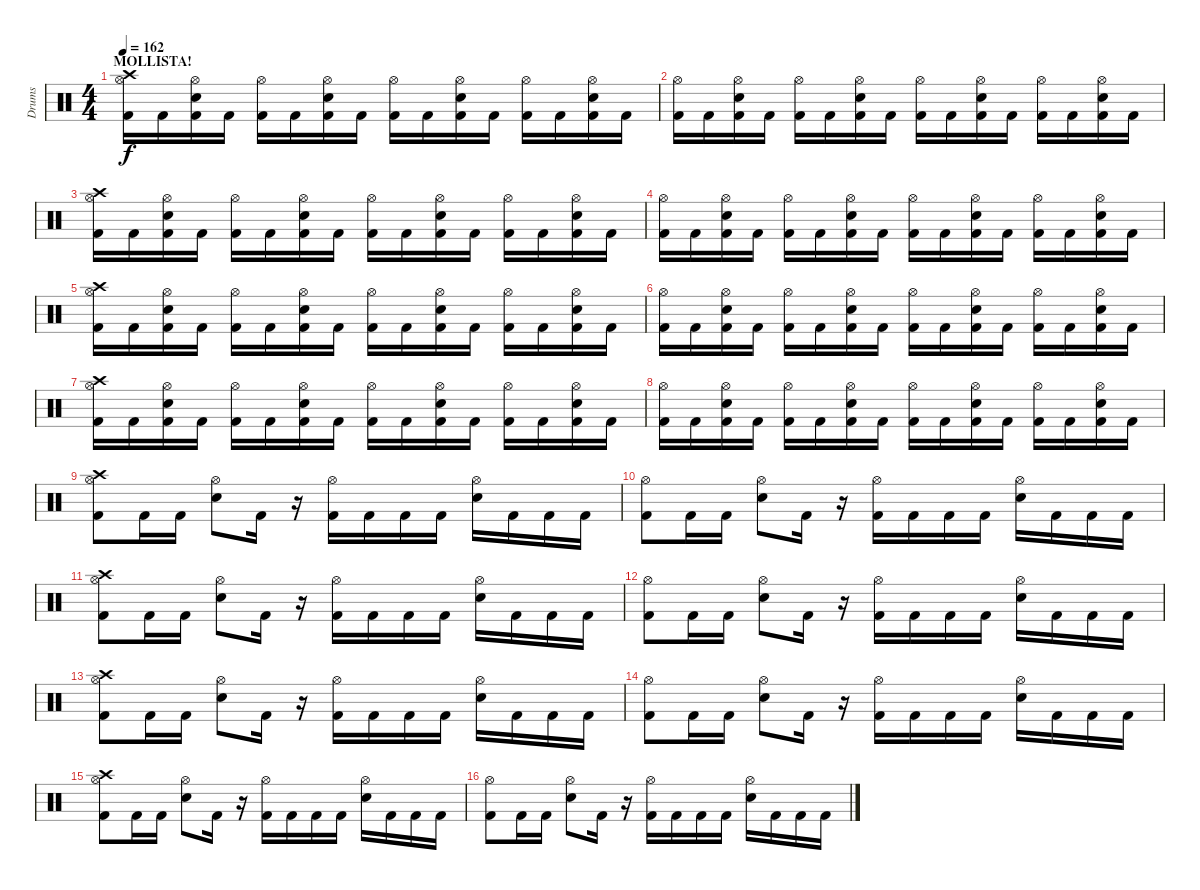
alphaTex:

\track ("Drums" "Drums") {instrument percussion}
\staff {score}
\articulation defaults
\ts (4 4)
\section ("" "MOLLISTA!")
\tempo 162
\clef neutral
\ks c
("Crash high (hit)" "Hi-Hat (open)" "Kick (hit) 2").16{dy f} "Kick (hit) 2".16 ("Electric Snare (hit)" "Hi-Hat (open)" "Kick (hit) 2").16 "Kick (hit) 2".16 ("Hi-Hat (open)" "Kick (hit) 2").16 "Kick (hit) 2".16 ("Electric Snare (hit)" "Hi-Hat (open)" "Kick (hit) 2").16 "Kick (hit) 2".16 ("Hi-Hat (open)" "Kick (hit) 2").16 "Kick (hit) 2".16 ("Electric Snare (hit)" "Hi-Hat (open)" "Kick (hit) 2").16 "Kick (hit) 2".16 ("Hi-Hat (open)" "Kick (hit) 2").16 "Kick (hit) 2".16 ("Electric Snare (hit)" "Hi-Hat (open)" "Kick (hit) 2").16 "Kick (hit) 2".16 |
("Hi-Hat (open)" "Kick (hit) 2").16 "Kick (hit) 2".16 ("Electric Snare (hit)" "Hi-Hat (open)" "Kick (hit) 2").16 "Kick (hit) 2".16 ("Hi-Hat (open)" "Kick (hit) 2").16 "Kick (hit) 2".16 ("Electric Snare (hit)" "Hi-Hat (open)" "Kick (hit) 2").16 "Kick (hit) 2".16 ("Hi-Hat (open)" "Kick (hit) 2").16 "Kick (hit) 2".16 ("Electric Snare (hit)" "Hi-Hat (open)" "Kick (hit) 2").16 "Kick (hit) 2".16 ("Hi-Hat (open)" "Kick (hit) 2").16 "Kick (hit) 2".16 ("Electric Snare (hit)" "Hi-Hat (open)" "Kick (hit) 2").16 "Kick (hit) 2".16 |
("Crash high (hit)" "Hi-Hat (open)" "Kick (hit) 2").16 "Kick (hit) 2".16 ("Electric Snare (hit)" "Hi-Hat (open)" "Kick (hit) 2").16 "Kick (hit) 2".16 ("Hi-Hat (open)" "Kick (hit) 2").16 "Kick (hit) 2".16 ("Electric Snare (hit)" "Hi-Hat (open)" "Kick (hit) 2").16 "Kick (hit) 2".16 ("Hi-Hat (open)" "Kick (hit) 2").16 "Kick (hit) 2".16 ("Electric Snare (hit)" "Hi-Hat (open)" "Kick (hit) 2").16 "Kick (hit) 2".16 ("Hi-Hat (open)" "Kick (hit) 2").16 "Kick (hit) 2".16 ("Electric Snare (hit)" "Hi-Hat (open)" "Kick (hit) 2").16 "Kick (hit) 2".16 |
("Hi-Hat (open)" "Kick (hit) 2").16 "Kick (hit) 2".16 ("Electric Snare (hit)" "Hi-Hat (open)" "Kick (hit) 2").16 "Kick (hit) 2".16 ("Hi-Hat (open)" "Kick (hit) 2").16 "Kick (hit) 2".16 ("Electric Snare (hit)" "Hi-Hat (open)" "Kick (hit) 2").16 "Kick (hit) 2".16 ("Hi-Hat (open)" "Kick (hit) 2").16 "Kick (hit) 2".16 ("Electric Snare (hit)" "Hi-Hat (open)" "Kick (hit) 2").16 "Kick (hit) 2".16 ("Hi-Hat (open)" "Kick (hit) 2").16 "Kick (hit) 2".16 ("Electric Snare (hit)" "Hi-Hat (open)" "Kick (hit) 2").16 "Kick (hit) 2".16 |
("Crash high (hit)" "Hi-Hat (open)" "Kick (hit) 2").16 "Kick (hit) 2".16 ("Electric Snare (hit)" "Hi-Hat (open)" "Kick (hit) 2").16 "Kick (hit) 2".16 ("Hi-Hat (open)" "Kick (hit) 2").16 "Kick (hit) 2".16 ("Electric Snare (hit)" "Hi-Hat (open)" "Kick (hit) 2").16 "Kick (hit) 2".16 ("Hi-Hat (open)" "Kick (hit) 2").16 "Kick (hit) 2".16 ("Electric Snare (hit)" "Hi-Hat (open)" "Kick (hit) 2").16 "Kick (hit) 2".16 ("Hi-Hat (open)" "Kick (hit) 2").16 "Kick (hit) 2".16 ("Electric Snare (hit)" "Hi-Hat (open)" "Kick (hit) 2").16 "Kick (hit) 2".16 |
("Hi-Hat (open)" "Kick (hit) 2").16 "Kick (hit) 2".16 ("Electric Snare (hit)" "Hi-Hat (open)" "Kick (hit) 2").16 "Kick (hit) 2".16 ("Hi-Hat (open)" "Kick (hit) 2").16 "Kick (hit) 2".16 ("Electric Snare (hit)" "Hi-Hat (open)" "Kick (hit) 2").16 "Kick (hit) 2".16 ("Hi-Hat (open)" "Kick (hit) 2").16 "Kick (hit) 2".16 ("Electric Snare (hit)" "Hi-Hat (open)" "Kick (hit) 2").16 "Kick (hit) 2".16 ("Hi-Hat (open)" "Kick (hit) 2").16 "Kick (hit) 2".16 ("Electric Snare (hit)" "Hi-Hat (open)" "Kick (hit) 2").16 "Kick (hit) 2".16 |
("Crash high (hit)" "Hi-Hat (open)" "Kick (hit) 2").16 "Kick (hit) 2".16 ("Electric Snare (hit)" "Hi-Hat (open)" "Kick (hit) 2").16 "Kick (hit) 2".16 ("Hi-Hat (open)" "Kick (hit) 2").16 "Kick (hit) 2".16 ("Electric Snare (hit)" "Hi-Hat (open)" "Kick (hit) 2").16 "Kick (hit) 2".16 ("Hi-Hat (open)" "Kick (hit) 2").16 "Kick (hit) 2".16 ("Electric Snare (hit)" "Hi-Hat (open)" "Kick (hit) 2").16 "Kick (hit) 2".16 ("Hi-Hat (open)" "Kick (hit) 2").16 "Kick (hit) 2".16 ("Electric Snare (hit)" "Hi-Hat (open)" "Kick (hit) 2").16 "Kick (hit) 2".16 |
("Hi-Hat (open)" "Kick (hit) 2").16 "Kick (hit) 2".16 ("Electric Snare (hit)" "Hi-Hat (open)" "Kick (hit) 2").16 "Kick (hit) 2".16 ("Hi-Hat (open)" "Kick (hit) 2").16 "Kick (hit) 2".16 ("Electric Snare (hit)" "Hi-Hat (open)" "Kick (hit) 2").16 "Kick (hit) 2".16 ("Hi-Hat (open)" "Kick (hit) 2").16 "Kick (hit) 2".16 ("Electric Snare (hit)" "Hi-Hat (open)" "Kick (hit) 2").16 "Kick (hit) 2".16 ("Hi-Hat (open)" "Kick (hit) 2").16 "Kick (hit) 2".16 ("Electric Snare (hit)" "Hi-Hat (open)" "Kick (hit) 2").16 "Kick (hit) 2".16 |
("Crash high (hit)" "Hi-Hat (open)" "Kick (hit) 2").8 "Kick (hit) 2".16 "Kick (hit) 2".16 ("Hi-Hat (open)" "Electric Snare (hit)").8 "Kick (hit) 2".16 r.16 ("Hi-Hat (open)" "Kick (hit) 2").16 "Kick (hit) 2".16 "Kick (hit) 2".16 "Kick (hit) 2".16 ("Hi-Hat (open)" "Electric Snare (hit)").16 "Kick (hit) 2".16 "Kick (hit) 2".16 "Kick (hit) 2".16 |
("Hi-Hat (open)" "Kick (hit) 2").8 "Kick (hit) 2".16 "Kick (hit) 2".16 ("Hi-Hat (open)" "Electric Snare (hit)").8 "Kick (hit) 2".16 r.16 ("Hi-Hat (open)" "Kick (hit) 2").16 "Kick (hit) 2".16 "Kick (hit) 2".16 "Kick (hit) 2".16 ("Hi-Hat (open)" "Electric Snare (hit)").16 "Kick (hit) 2".16 "Kick (hit) 2".16 "Kick (hit) 2".16 |
("Crash high (hit)" "Hi-Hat (open)" "Kick (hit) 2").8 "Kick (hit) 2".16 "Kick (hit) 2".16 ("Hi-Hat (open)" "Electric Snare (hit)").8 "Kick (hit) 2".16 r.16 ("Hi-Hat (open)" "Kick (hit) 2").16 "Kick (hit) 2".16 "Kick (hit) 2".16 "Kick (hit) 2".16 ("Hi-Hat (open)" "Electric Snare (hit)").16 "Kick (hit) 2".16 "Kick (hit) 2".16 "Kick (hit) 2".16 |
("Hi-Hat (open)" "Kick (hit) 2").8 "Kick (hit) 2".16 "Kick (hit) 2".16 ("Hi-Hat (open)" "Electric Snare (hit)").8 "Kick (hit) 2".16 r.16 ("Hi-Hat (open)" "Kick (hit) 2").16 "Kick (hit) 2".16 "Kick (hit) 2".16 "Kick (hit) 2".16 ("Hi-Hat (open)" "Electric Snare (hit)").16 "Kick (hit) 2".16 "Kick (hit) 2".16 "Kick (hit) 2".16 |
("Crash high (hit)" "Hi-Hat (open)" "Kick (hit) 2").8 "Kick (hit) 2".16 "Kick (hit) 2".16 ("Hi-Hat (open)" "Electric Snare (hit)").8 "Kick (hit) 2".16 r.16 ("Hi-Hat (open)" "Kick (hit) 2").16 "Kick (hit) 2".16 "Kick (hit) 2".16 "Kick (hit) 2".16 ("Hi-Hat (open)" "Electric Snare (hit)").16 "Kick (hit) 2".16 "Kick (hit) 2".16 "Kick (hit) 2".16 |
("Hi-Hat (open)" "Kick (hit) 2").8 "Kick (hit) 2".16 "Kick (hit) 2".16 ("Hi-Hat (open)" "Electric Snare (hit)").8 "Kick (hit) 2".16 r.16 ("Hi-Hat (open)" "Kick (hit) 2").16 "Kick (hit) 2".16 "Kick (hit) 2".16 "Kick (hit) 2".16 ("Hi-Hat (open)" "Electric Snare (hit)").16 "Kick (hit) 2".16 "Kick (hit) 2".16 "Kick (hit) 2".16 |
("Crash high (hit)" "Hi-Hat (open)" "Kick (hit) 2").8 "Kick (hit) 2".16 "Kick (hit) 2".16 ("Hi-Hat (open)" "Electric Snare (hit)").8 "Kick (hit) 2".16 r.16 ("Hi-Hat (open)" "Kick (hit) 2").16 "Kick (hit) 2".16 "Kick (hit) 2".16 "Kick (hit) 2".16 ("Hi-Hat (open)" "Electric Snare (hit)").16 "Kick (hit) 2".16 "Kick (hit) 2".16 "Kick (hit) 2".16 |
("Hi-Hat (open)" "Kick (hit) 2").8 "Kick (hit) 2".16 "Kick (hit) 2".16 ("Hi-Hat (open)" "Electric Snare (hit)").8 "Kick (hit) 2".16 r.16 ("Hi-Hat (open)" "Kick (hit) 2").16 "Kick (hit) 2".16 "Kick (hit) 2".16 "Kick (hit) 2".16 ("Hi-Hat (open)" "Electric Snare (hit)").16 "Kick (hit) 2".16 "Kick (hit) 2".16 "Kick (hit) 2".16
